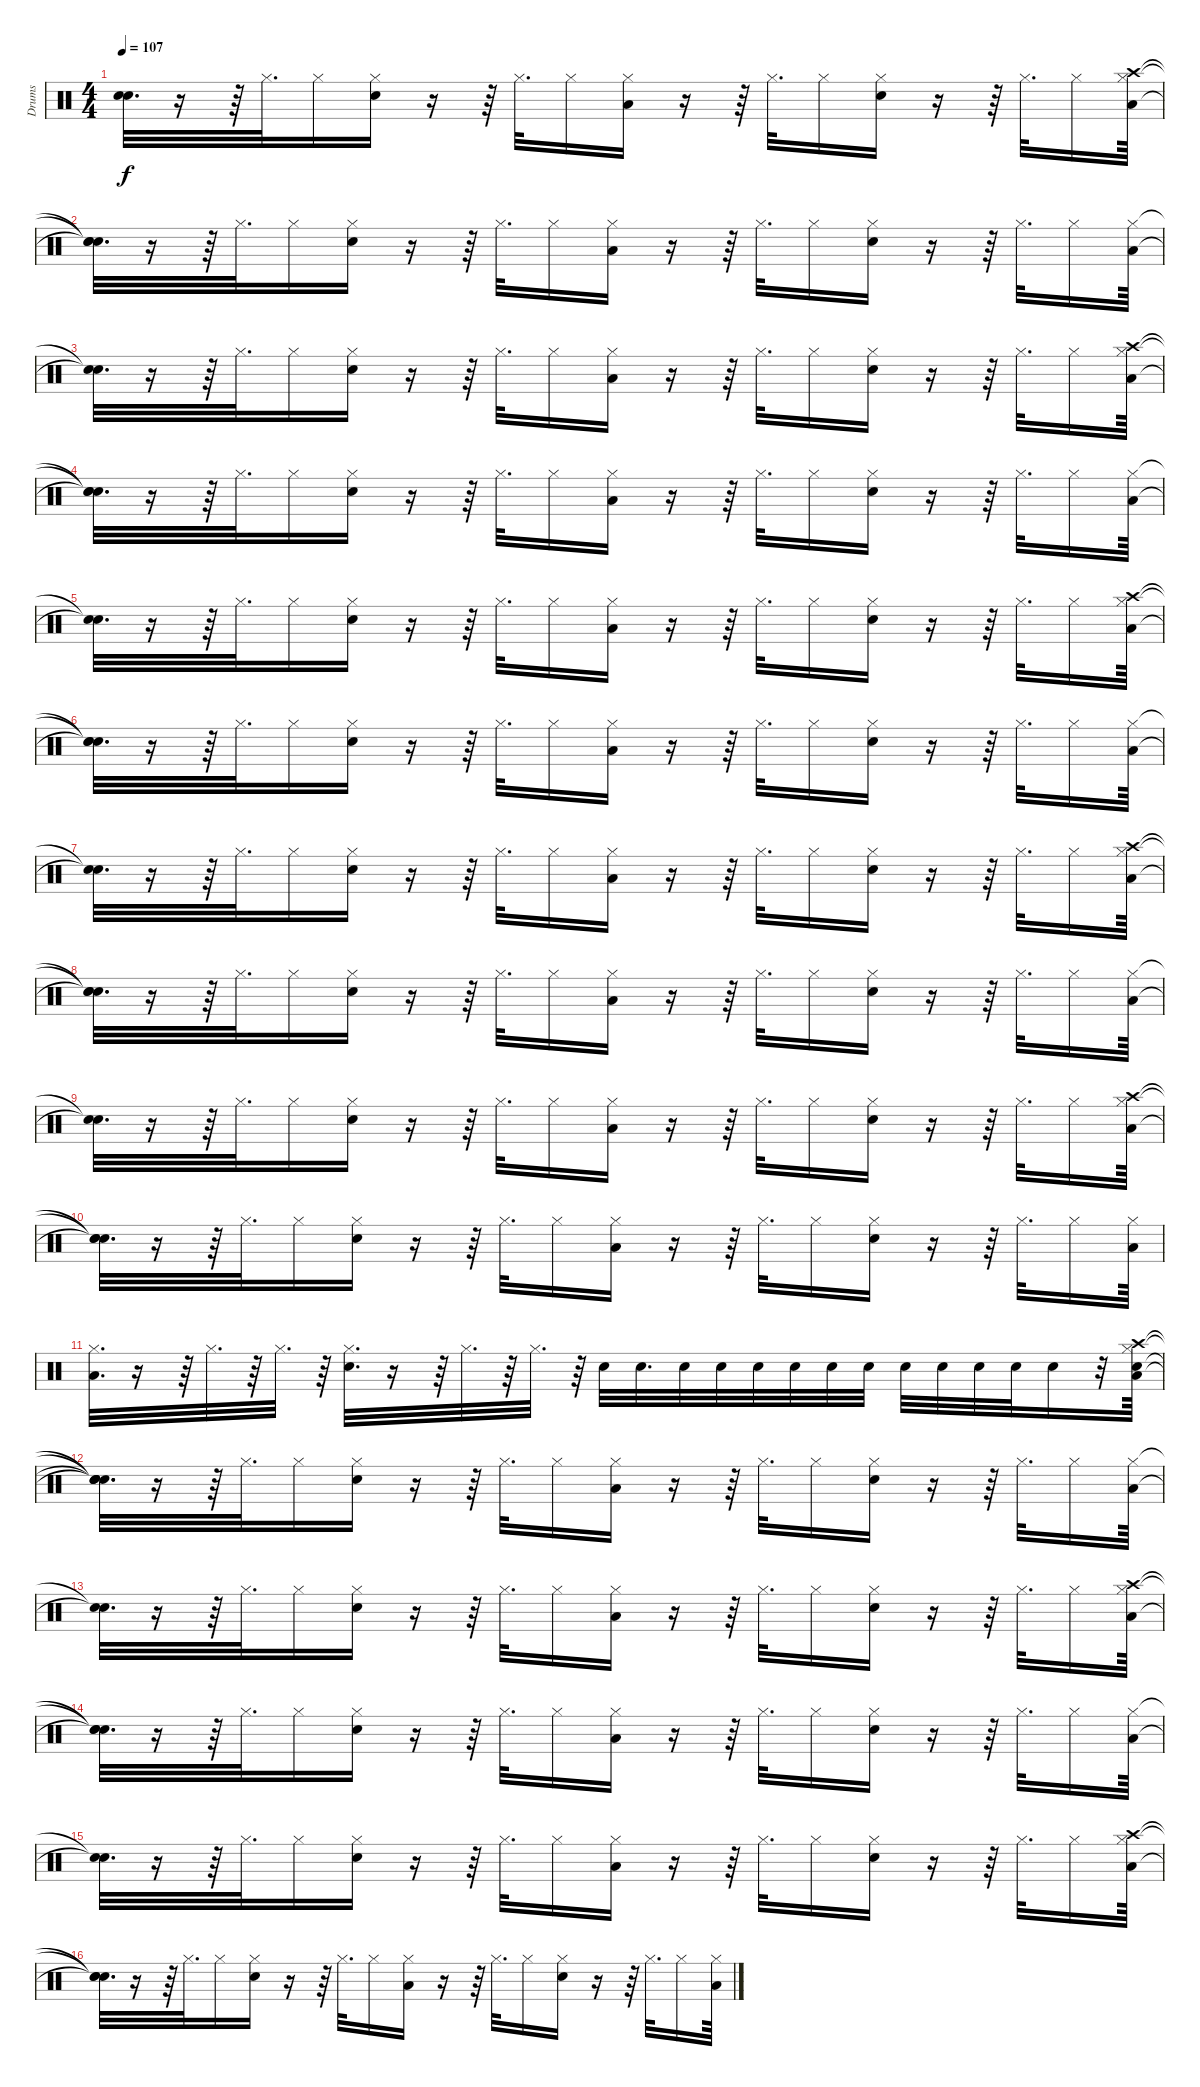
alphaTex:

\track ("Drums" "Drums") {instrument percussion}
\staff {score}
\articulation defaults
\ts (4 4)
\tempo 107
\clef neutral
\ks c
("Snare (hit)"{t} "Snare (hit)"{t}).32{d dy f} r.16 r.64 "Hi-Hat (closed)".32{d} "Hi-Hat (closed)".16 ("Hi-Hat (closed)" "Snare (hit) 2").16 r.16 r.64 "Hi-Hat (closed)".32{d} "Hi-Hat (closed)".16 ("Hi-Hat (closed)" "Low Tom (hit)").16 r.16 r.64 "Hi-Hat (closed)".32{d} "Hi-Hat (closed)".16 ("Hi-Hat (closed)" "Snare (hit) 2").16 r.16 r.64 "Hi-Hat (closed)".32{d} "Hi-Hat (closed)".16 ("Hi-Hat (closed)" "Crash high (hit)" "Low Tom (hit)").64 |
("Snare (hit)"{t} "Snare (hit)"{t} "Snare (hit)"{t}).32{d} r.16 r.64 "Hi-Hat (closed)".32{d} "Hi-Hat (closed)".16 ("Hi-Hat (closed)" "Snare (hit) 2").16 r.16 r.64 "Hi-Hat (closed)".32{d} "Hi-Hat (closed)".16 ("Hi-Hat (closed)" "Low Tom (hit)").16 r.16 r.64 "Hi-Hat (closed)".32{d} "Hi-Hat (closed)".16 ("Hi-Hat (closed)" "Snare (hit) 2").16 r.16 r.64 "Hi-Hat (closed)".32{d} "Hi-Hat (closed)".16 ("Hi-Hat (closed)" "Low Tom (hit)").64 |
("Snare (hit)"{t} "Snare (hit)"{t}).32{d} r.16 r.64 "Hi-Hat (closed)".32{d} "Hi-Hat (closed)".16 ("Hi-Hat (closed)" "Snare (hit) 2").16 r.16 r.64 "Hi-Hat (closed)".32{d} "Hi-Hat (closed)".16 ("Hi-Hat (closed)" "Low Tom (hit)").16 r.16 r.64 "Hi-Hat (closed)".32{d} "Hi-Hat (closed)".16 ("Hi-Hat (closed)" "Snare (hit) 2").16 r.16 r.64 "Hi-Hat (closed)".32{d} "Hi-Hat (closed)".16 ("Hi-Hat (closed)" "Crash high (hit)" "Low Tom (hit)").64 |
("Snare (hit)"{t} "Snare (hit)"{t} "Snare (hit)"{t}).32{d} r.16 r.64 "Hi-Hat (closed)".32{d} "Hi-Hat (closed)".16 ("Hi-Hat (closed)" "Snare (hit) 2").16 r.16 r.64 "Hi-Hat (closed)".32{d} "Hi-Hat (closed)".16 ("Hi-Hat (closed)" "Low Tom (hit)").16 r.16 r.64 "Hi-Hat (closed)".32{d} "Hi-Hat (closed)".16 ("Hi-Hat (closed)" "Snare (hit) 2").16 r.16 r.64 "Hi-Hat (closed)".32{d} "Hi-Hat (closed)".16 ("Hi-Hat (closed)" "Low Tom (hit)").64 |
("Snare (hit)"{t} "Snare (hit)"{t}).32{d} r.16 r.64 "Hi-Hat (closed)".32{d} "Hi-Hat (closed)".16 ("Hi-Hat (closed)" "Snare (hit) 2").16 r.16 r.64 "Hi-Hat (closed)".32{d} "Hi-Hat (closed)".16 ("Hi-Hat (closed)" "Low Tom (hit)").16 r.16 r.64 "Hi-Hat (closed)".32{d} "Hi-Hat (closed)".16 ("Hi-Hat (closed)" "Snare (hit) 2").16 r.16 r.64 "Hi-Hat (closed)".32{d} "Hi-Hat (closed)".16 ("Hi-Hat (closed)" "Crash high (hit)" "Low Tom (hit)").64 |
("Snare (hit)"{t} "Snare (hit)"{t} "Snare (hit)"{t}).32{d} r.16 r.64 "Hi-Hat (closed)".32{d} "Hi-Hat (closed)".16 ("Hi-Hat (closed)" "Snare (hit) 2").16 r.16 r.64 "Hi-Hat (closed)".32{d} "Hi-Hat (closed)".16 ("Hi-Hat (closed)" "Low Tom (hit)").16 r.16 r.64 "Hi-Hat (closed)".32{d} "Hi-Hat (closed)".16 ("Hi-Hat (closed)" "Snare (hit) 2").16 r.16 r.64 "Hi-Hat (closed)".32{d} "Hi-Hat (closed)".16 ("Hi-Hat (closed)" "Low Tom (hit)").64 |
("Snare (hit)"{t} "Snare (hit)"{t}).32{d} r.16 r.64 "Hi-Hat (closed)".32{d} "Hi-Hat (closed)".16 ("Hi-Hat (closed)" "Snare (hit) 2").16 r.16 r.64 "Hi-Hat (closed)".32{d} "Hi-Hat (closed)".16 ("Hi-Hat (closed)" "Low Tom (hit)").16 r.16 r.64 "Hi-Hat (closed)".32{d} "Hi-Hat (closed)".16 ("Hi-Hat (closed)" "Snare (hit) 2").16 r.16 r.64 "Hi-Hat (closed)".32{d} "Hi-Hat (closed)".16 ("Hi-Hat (closed)" "Crash high (hit)" "Low Tom (hit)").64 |
("Snare (hit)"{t} "Snare (hit)"{t} "Snare (hit)"{t}).32{d} r.16 r.64 "Hi-Hat (closed)".32{d} "Hi-Hat (closed)".16 ("Hi-Hat (closed)" "Snare (hit) 2").16 r.16 r.64 "Hi-Hat (closed)".32{d} "Hi-Hat (closed)".16 ("Hi-Hat (closed)" "Low Tom (hit)").16 r.16 r.64 "Hi-Hat (closed)".32{d} "Hi-Hat (closed)".16 ("Hi-Hat (closed)" "Snare (hit) 2").16 r.16 r.64 "Hi-Hat (closed)".32{d} "Hi-Hat (closed)".16 ("Hi-Hat (closed)" "Low Tom (hit)").64 |
("Snare (hit)"{t} "Snare (hit)"{t}).32{d} r.16 r.64 "Hi-Hat (closed)".32{d} "Hi-Hat (closed)".16 ("Hi-Hat (closed)" "Snare (hit) 2").16 r.16 r.64 "Hi-Hat (closed)".32{d} "Hi-Hat (closed)".16 ("Hi-Hat (closed)" "Low Tom (hit)").16 r.16 r.64 "Hi-Hat (closed)".32{d} "Hi-Hat (closed)".16 ("Hi-Hat (closed)" "Snare (hit) 2").16 r.16 r.64 "Hi-Hat (closed)".32{d} "Hi-Hat (closed)".16 ("Hi-Hat (closed)" "Crash high (hit)" "Low Tom (hit)").64 |
("Snare (hit)"{t} "Snare (hit)"{t} "Snare (hit)"{t}).32{d} r.16 r.64 "Hi-Hat (closed)".32{d} "Hi-Hat (closed)".16 ("Hi-Hat (closed)" "Snare (hit) 2").16 r.16 r.64 "Hi-Hat (closed)".32{d} "Hi-Hat (closed)".16 ("Hi-Hat (closed)" "Low Tom (hit)").16 r.16 r.64 "Hi-Hat (closed)".32{d} "Hi-Hat (closed)".16 ("Hi-Hat (closed)" "Snare (hit) 2").16 r.16 r.64 "Hi-Hat (closed)".32{d} "Hi-Hat (closed)".16 ("Hi-Hat (closed)" "Low Tom (hit)").64 |
("Hi-Hat (closed)" "Low Tom (hit)").32{d} r.16 r.64 "Hi-Hat (closed)".32{d} r.64 "Hi-Hat (closed)".32{d} r.64 ("Hi-Hat (closed)" "Snare (hit) 2").32{d} r.16 r.64 "Hi-Hat (closed)".32{d} r.64 "Hi-Hat (closed)".32{d} r.64 "Snare (hit) 2".32 "Snare (hit) 2".32{d} "Snare (hit) 2".32 "Snare (hit) 2".32 "Snare (hit) 2".32 "Snare (hit) 2".32 "Snare (hit) 2".32 "Snare (hit) 2".32 "Snare (hit) 2".32 "Snare (hit) 2".32 "Snare (hit) 2".32 "Snare (hit) 2".32 "Snare (hit) 2".16 r.32 ("Hi-Hat (closed)" "Crash high (hit)" "Low Tom (hit)" "Snare (hit) 2").64 |
("Snare (hit)"{t} "Snare (hit)"{t} "Snare (hit)"{t} "Snare (hit)"{t}).32{d} r.16 r.64 "Hi-Hat (closed)".32{d} "Hi-Hat (closed)".16 ("Hi-Hat (closed)" "Snare (hit) 2").16 r.16 r.64 "Hi-Hat (closed)".32{d} "Hi-Hat (closed)".16 ("Hi-Hat (closed)" "Low Tom (hit)").16 r.16 r.64 "Hi-Hat (closed)".32{d} "Hi-Hat (closed)".16 ("Hi-Hat (closed)" "Snare (hit) 2").16 r.16 r.64 "Hi-Hat (closed)".32{d} "Hi-Hat (closed)".16 ("Hi-Hat (closed)" "Low Tom (hit)").64 |
("Snare (hit)"{t} "Snare (hit)"{t}).32{d} r.16 r.64 "Hi-Hat (closed)".32{d} "Hi-Hat (closed)".16 ("Hi-Hat (closed)" "Snare (hit) 2").16 r.16 r.64 "Hi-Hat (closed)".32{d} "Hi-Hat (closed)".16 ("Hi-Hat (closed)" "Low Tom (hit)").16 r.16 r.64 "Hi-Hat (closed)".32{d} "Hi-Hat (closed)".16 ("Hi-Hat (closed)" "Snare (hit) 2").16 r.16 r.64 "Hi-Hat (closed)".32{d} "Hi-Hat (closed)".16 ("Hi-Hat (closed)" "Crash high (hit)" "Low Tom (hit)").64 |
("Snare (hit)"{t} "Snare (hit)"{t} "Snare (hit)"{t}).32{d} r.16 r.64 "Hi-Hat (closed)".32{d} "Hi-Hat (closed)".16 ("Hi-Hat (closed)" "Snare (hit) 2").16 r.16 r.64 "Hi-Hat (closed)".32{d} "Hi-Hat (closed)".16 ("Hi-Hat (closed)" "Low Tom (hit)").16 r.16 r.64 "Hi-Hat (closed)".32{d} "Hi-Hat (closed)".16 ("Hi-Hat (closed)" "Snare (hit) 2").16 r.16 r.64 "Hi-Hat (closed)".32{d} "Hi-Hat (closed)".16 ("Hi-Hat (closed)" "Low Tom (hit)").64 |
("Snare (hit)"{t} "Snare (hit)"{t}).32{d} r.16 r.64 "Hi-Hat (closed)".32{d} "Hi-Hat (closed)".16 ("Hi-Hat (closed)" "Snare (hit) 2").16 r.16 r.64 "Hi-Hat (closed)".32{d} "Hi-Hat (closed)".16 ("Hi-Hat (closed)" "Low Tom (hit)").16 r.16 r.64 "Hi-Hat (closed)".32{d} "Hi-Hat (closed)".16 ("Hi-Hat (closed)" "Snare (hit) 2").16 r.16 r.64 "Hi-Hat (closed)".32{d} "Hi-Hat (closed)".16 ("Hi-Hat (closed)" "Crash high (hit)" "Low Tom (hit)").64 |
("Snare (hit)"{t} "Snare (hit)"{t} "Snare (hit)"{t}).32{d} r.16 r.64 "Hi-Hat (closed)".32{d} "Hi-Hat (closed)".16 ("Hi-Hat (closed)" "Snare (hit) 2").16 r.16 r.64 "Hi-Hat (closed)".32{d} "Hi-Hat (closed)".16 ("Hi-Hat (closed)" "Low Tom (hit)").16 r.16 r.64 "Hi-Hat (closed)".32{d} "Hi-Hat (closed)".16 ("Hi-Hat (closed)" "Snare (hit) 2").16 r.16 r.64 "Hi-Hat (closed)".32{d} "Hi-Hat (closed)".16 ("Hi-Hat (closed)" "Low Tom (hit)").64
